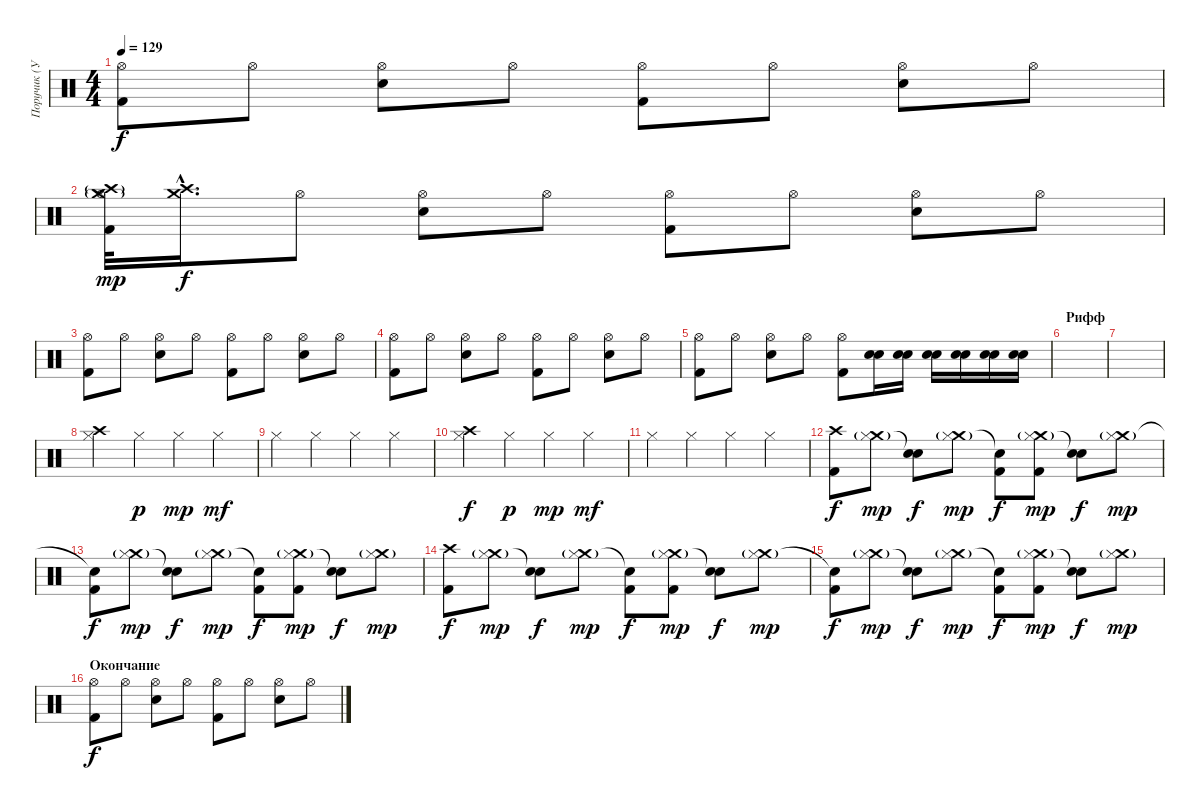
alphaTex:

\track ("Поручик (Ударные)" "Поручик (У") {instrument percussion}
\staff {score}
\articulation defaults
\ts (4 4)
\tempo 129
\clef neutral
\ks c
("Hi-Hat (open)" "Kick (hit) 2").8{dy f} "Hi-Hat (open)".8 ("Hi-Hat (open)" "Snare (hit) 2").8 "Hi-Hat (open)".8 ("Hi-Hat (open)" "Kick (hit) 2").8 "Hi-Hat (open)".8 ("Hi-Hat (open)" "Snare (hit) 2").8 "Hi-Hat (open)".8 |
("Hi-Hat (open)" "Kick (hit) 2" "Crash medium (hit)"{g} "Crash high (hit)"{g}).32{dy mp} ("Crash medium (hit)"{hac} "Crash high (hit)"{hac}).16{d dy f} "Hi-Hat (open)".8 ("Hi-Hat (open)" "Snare (hit) 2").8 "Hi-Hat (open)".8 ("Hi-Hat (open)" "Kick (hit) 2").8 "Hi-Hat (open)".8 ("Hi-Hat (open)" "Snare (hit) 2").8 "Hi-Hat (open)".8 |
("Hi-Hat (open)" "Kick (hit) 2").8 "Hi-Hat (open)".8 ("Hi-Hat (open)" "Snare (hit) 2").8 "Hi-Hat (open)".8 ("Hi-Hat (open)" "Kick (hit) 2").8 "Hi-Hat (open)".8 ("Hi-Hat (open)" "Snare (hit) 2").8 "Hi-Hat (open)".8 |
("Hi-Hat (open)" "Kick (hit) 2").8 "Hi-Hat (open)".8 ("Hi-Hat (open)" "Snare (hit) 2").8 "Hi-Hat (open)".8 ("Hi-Hat (open)" "Kick (hit) 2").8 "Hi-Hat (open)".8 ("Hi-Hat (open)" "Snare (hit) 2").8 "Hi-Hat (open)".8 |
("Hi-Hat (open)" "Kick (hit) 2").8 "Hi-Hat (open)".8 ("Hi-Hat (open)" "Snare (hit) 2").8 "Hi-Hat (open)".8 ("Hi-Hat (open)" "Kick (hit) 2").8 ("Electric Snare (hit)" "Snare (hit) 2").16 ("Electric Snare (hit)" "Snare (hit) 2").16 ("Electric Snare (hit)" "Snare (hit) 2").16 ("Electric Snare (hit)" "Snare (hit) 2").16 ("Electric Snare (hit)" "Snare (hit) 2").16 ("Electric Snare (hit)" "Snare (hit) 2").16 |
\section ("" "Рифф")
|
|
("Crash high (hit)" "Hi-Hat (closed)").4 "Hi-Hat (closed)".4{dy p} "Hi-Hat (closed)".4{dy mp} "Hi-Hat (closed)".4{dy mf} |
"Hi-Hat (closed)".4 "Hi-Hat (closed)".4 "Hi-Hat (closed)".4 "Hi-Hat (closed)".4 |
("Crash high (hit)" "Hi-Hat (closed)").4{dy f} "Hi-Hat (closed)".4{dy p} "Hi-Hat (closed)".4{dy mp} "Hi-Hat (closed)".4{dy mf} |
"Hi-Hat (closed)".4 "Hi-Hat (closed)".4 "Hi-Hat (closed)".4 "Hi-Hat (closed)".4 |
("Kick (hit) 2" "Crash high (hit)").8{dy f} ("Crash medium (hit)"{g} "Hi-Hat (closed)").8{dy mp} ("Snare (hit) 2" "Snare (hit)"{t}).8{dy f} ("Crash medium (hit)"{g} "Hi-Hat (closed)").8{dy mp} ("Kick (hit) 2" "Snare (hit)"{t}).8{dy f} ("Kick (hit) 2" "Crash medium (hit)"{g} "Hi-Hat (closed)").8{dy mp} ("Snare (hit) 2" "Snare (hit)"{t}).8{dy f} ("Crash medium (hit)"{g} "Hi-Hat (closed)").8{dy mp} |
("Kick (hit) 2" "Snare (hit)"{t}).8{dy f} ("Crash medium (hit)"{g} "Hi-Hat (closed)").8{dy mp} ("Snare (hit) 2" "Snare (hit)"{t}).8{dy f} ("Crash medium (hit)"{g} "Hi-Hat (closed)").8{dy mp} ("Kick (hit) 2" "Snare (hit)"{t}).8{dy f} ("Kick (hit) 2" "Crash medium (hit)"{g} "Hi-Hat (closed)").8{dy mp} ("Snare (hit) 2" "Snare (hit)"{t}).8{dy f} ("Crash medium (hit)"{g} "Hi-Hat (closed)").8{dy mp} |
("Kick (hit) 2" "Crash high (hit)").8{dy f} ("Crash medium (hit)"{g} "Hi-Hat (closed)").8{dy mp} ("Snare (hit) 2" "Snare (hit)"{t}).8{dy f} ("Crash medium (hit)"{g} "Hi-Hat (closed)").8{dy mp} ("Kick (hit) 2" "Snare (hit)"{t}).8{dy f} ("Kick (hit) 2" "Crash medium (hit)"{g} "Hi-Hat (closed)").8{dy mp} ("Snare (hit) 2" "Snare (hit)"{t}).8{dy f} ("Crash medium (hit)"{g} "Hi-Hat (closed)").8{dy mp} |
("Kick (hit) 2" "Snare (hit)"{t}).8{dy f} ("Crash medium (hit)"{g} "Hi-Hat (closed)").8{dy mp} ("Snare (hit) 2" "Snare (hit)"{t}).8{dy f} ("Crash medium (hit)"{g} "Hi-Hat (closed)").8{dy mp} ("Kick (hit) 2" "Snare (hit)"{t}).8{dy f} ("Kick (hit) 2" "Crash medium (hit)"{g} "Hi-Hat (closed)").8{dy mp} ("Snare (hit) 2" "Snare (hit)"{t}).8{dy f} ("Crash medium (hit)"{g} "Hi-Hat (closed)").8{dy mp} |
\section ("" "Окончание")
("Hi-Hat (open)" "Kick (hit) 2").8{dy f} "Hi-Hat (open)".8 ("Hi-Hat (open)" "Snare (hit) 2").8 "Hi-Hat (open)".8 ("Hi-Hat (open)" "Kick (hit) 2").8 "Hi-Hat (open)".8 ("Hi-Hat (open)" "Snare (hit) 2").8 "Hi-Hat (open)".8
